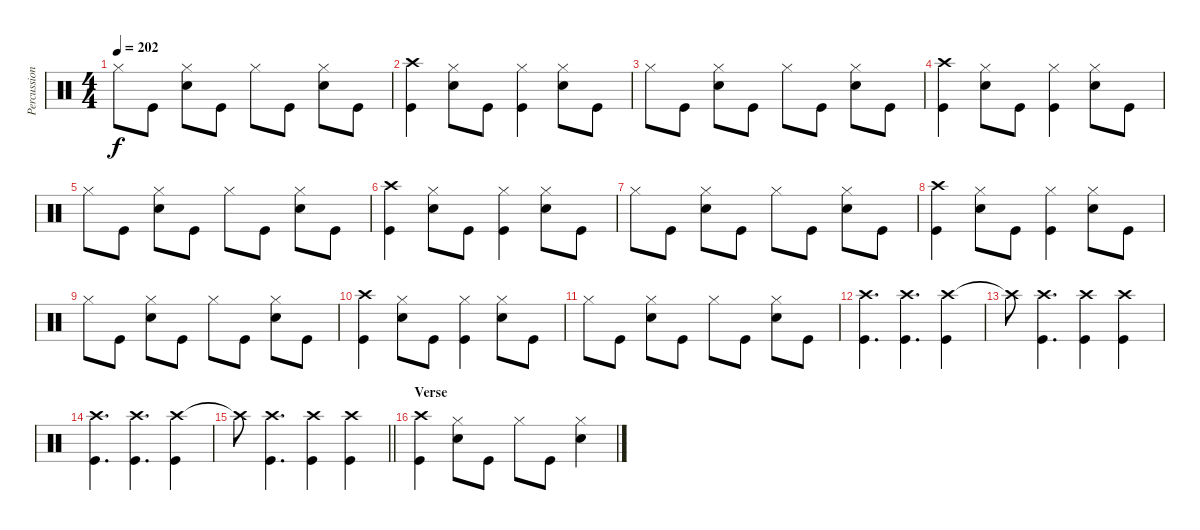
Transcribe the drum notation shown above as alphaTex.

\track ("Percussion" "Percussion") {instrument percussion}
\staff {score}
\articulation defaults
\ts (4 4)
\tempo 202
\clef neutral
\ks c "Hi-Hat (closed)".8{dy f} "Kick (hit)".8
("Hi-Hat (closed)" "Snare (hit) 2").8 "Kick (hit)".8 "Hi-Hat (closed)".8 "Kick (hit)".8 ("Hi-Hat (closed)" "Snare (hit) 2").8 "Kick (hit)".8 |
("Crash high (hit)" "Kick (hit)").4 ("Hi-Hat (closed)" "Snare (hit) 2").8 "Kick (hit)".8 ("Kick (hit)" "Hi-Hat (closed)").4 ("Hi-Hat (closed)" "Snare (hit) 2").8 "Kick (hit)".8 |
"Hi-Hat (closed)".8 "Kick (hit)".8 ("Hi-Hat (closed)" "Snare (hit) 2").8 "Kick (hit)".8 "Hi-Hat (closed)".8 "Kick (hit)".8 ("Hi-Hat (closed)" "Snare (hit) 2").8 "Kick (hit)".8 |
("Crash high (hit)" "Kick (hit)").4 ("Hi-Hat (closed)" "Snare (hit) 2").8 "Kick (hit)".8 ("Kick (hit)" "Hi-Hat (closed)").4 ("Hi-Hat (closed)" "Snare (hit) 2").8 "Kick (hit)".8 |
"Hi-Hat (closed)".8 "Kick (hit)".8 ("Hi-Hat (closed)" "Snare (hit) 2").8 "Kick (hit)".8 "Hi-Hat (closed)".8 "Kick (hit)".8 ("Hi-Hat (closed)" "Snare (hit) 2").8 "Kick (hit)".8 |
("Crash high (hit)" "Kick (hit)").4 ("Hi-Hat (closed)" "Snare (hit) 2").8 "Kick (hit)".8 ("Kick (hit)" "Hi-Hat (closed)").4 ("Hi-Hat (closed)" "Snare (hit) 2").8 "Kick (hit)".8 |
"Hi-Hat (closed)".8 "Kick (hit)".8 ("Hi-Hat (closed)" "Snare (hit) 2").8 "Kick (hit)".8 "Hi-Hat (closed)".8 "Kick (hit)".8 ("Hi-Hat (closed)" "Snare (hit) 2").8 "Kick (hit)".8 |
("Crash high (hit)" "Kick (hit)").4 ("Hi-Hat (closed)" "Snare (hit) 2").8 "Kick (hit)".8 ("Kick (hit)" "Hi-Hat (closed)").4 ("Hi-Hat (closed)" "Snare (hit) 2").8 "Kick (hit)".8 |
"Hi-Hat (closed)".8 "Kick (hit)".8 ("Hi-Hat (closed)" "Snare (hit) 2").8 "Kick (hit)".8 "Hi-Hat (closed)".8 "Kick (hit)".8 ("Hi-Hat (closed)" "Snare (hit) 2").8 "Kick (hit)".8 |
("Crash high (hit)" "Kick (hit)").4 ("Hi-Hat (closed)" "Snare (hit) 2").8 "Kick (hit)".8 ("Kick (hit)" "Hi-Hat (closed)").4 ("Hi-Hat (closed)" "Snare (hit) 2").8 "Kick (hit)".8 |
"Hi-Hat (closed)".8 "Kick (hit)".8 ("Hi-Hat (closed)" "Snare (hit) 2").8 "Kick (hit)".8 "Hi-Hat (closed)".8 "Kick (hit)".8 ("Hi-Hat (closed)" "Snare (hit) 2").8 "Kick (hit)".8 |
("Crash high (hit)" "Kick (hit)").4{d} ("Crash high (hit)" "Kick (hit)").4{d} ("Crash high (hit)" "Kick (hit)").4 |
"Crash high (hit)"{t}.8 ("Crash high (hit)" "Kick (hit)").4{d} ("Crash high (hit)" "Kick (hit)").4 ("Crash high (hit)" "Kick (hit)").4 |
("Crash high (hit)" "Kick (hit)").4{d} ("Crash high (hit)" "Kick (hit)").4{d} ("Crash high (hit)" "Kick (hit)").4 |
\barLineRight lightlight "Crash high (hit)"{t}.8
("Crash high (hit)" "Kick (hit)").4{d} ("Crash high (hit)" "Kick (hit)").4 ("Crash high (hit)" "Kick (hit)").4 |
\section ("" "Verse")
("Crash high (hit)" "Kick (hit)").4 ("Hi-Hat (closed)" "Snare (hit) 2").8 "Kick (hit)".8 "Hi-Hat (closed)".8 "Kick (hit)".8 ("Hi-Hat (closed)" "Snare (hit) 2").4
